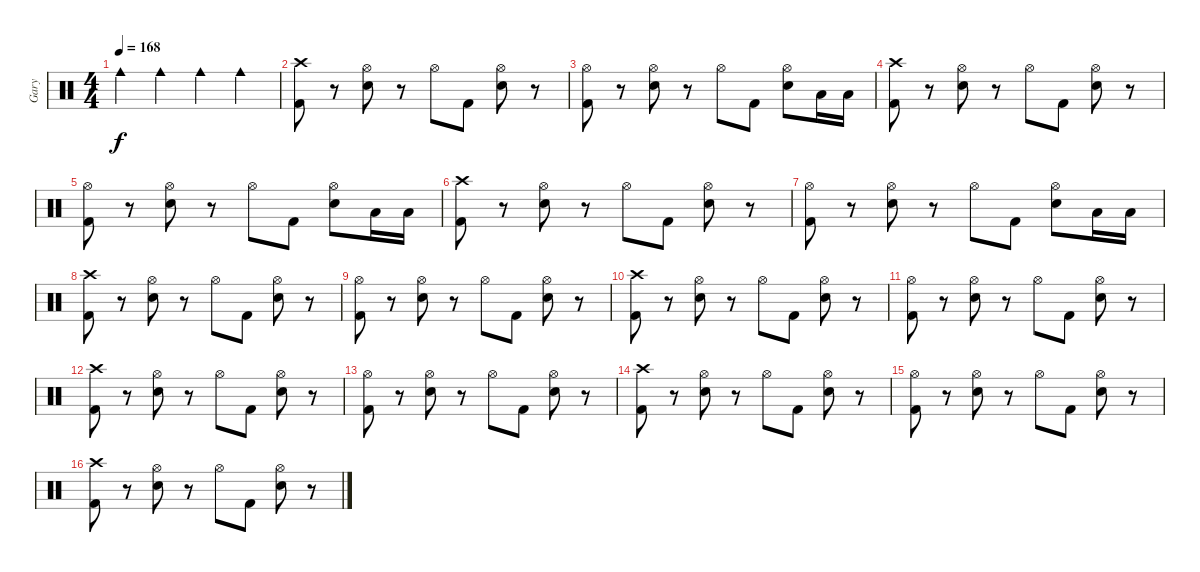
\track ("Gary" "Gary") {instrument percussion}
\staff {score}
\articulation defaults
\ts (4 4)
\tempo 168
\clef neutral
\ks c "Cowbell medium (hit)".4{dy f} "Cowbell medium (hit)".4 "Cowbell medium (hit)".4 "Cowbell medium (hit)".4
|
("Crash high (hit)" "Kick (hit) 2").8 r.8 ("Hi-Hat (open)" "Electric Snare (hit)").8 r.8 "Hi-Hat (open)".8 "Kick (hit) 2".8 ("Hi-Hat (open)" "Electric Snare (hit)").8 r.8 |
("Hi-Hat (open)" "Kick (hit) 2").8 r.8 ("Hi-Hat (open)" "Electric Snare (hit)").8 r.8 "Hi-Hat (open)".8 "Kick (hit) 2".8 ("Hi-Hat (open)" "Electric Snare (hit)").8 "Low Tom (hit)".16 "Low Tom (hit)".16 |
("Crash high (hit)" "Kick (hit) 2").8 r.8 ("Hi-Hat (open)" "Electric Snare (hit)").8 r.8 "Hi-Hat (open)".8 "Kick (hit) 2".8 ("Hi-Hat (open)" "Electric Snare (hit)").8 r.8 |
("Hi-Hat (open)" "Kick (hit) 2").8 r.8 ("Hi-Hat (open)" "Electric Snare (hit)").8 r.8 "Hi-Hat (open)".8 "Kick (hit) 2".8 ("Hi-Hat (open)" "Electric Snare (hit)").8 "Low Tom (hit)".16 "Low Tom (hit)".16 |
("Crash high (hit)" "Kick (hit) 2").8 r.8 ("Hi-Hat (open)" "Electric Snare (hit)").8 r.8 "Hi-Hat (open)".8 "Kick (hit) 2".8 ("Hi-Hat (open)" "Electric Snare (hit)").8 r.8 |
("Hi-Hat (open)" "Kick (hit) 2").8 r.8 ("Hi-Hat (open)" "Electric Snare (hit)").8 r.8 "Hi-Hat (open)".8 "Kick (hit) 2".8 ("Hi-Hat (open)" "Electric Snare (hit)").8 "Low Tom (hit)".16 "Low Tom (hit)".16 |
("Crash high (hit)" "Kick (hit) 2").8 r.8 ("Hi-Hat (open)" "Electric Snare (hit)").8 r.8 "Hi-Hat (open)".8 "Kick (hit) 2".8 ("Hi-Hat (open)" "Electric Snare (hit)").8 r.8 |
("Hi-Hat (open)" "Kick (hit) 2").8 r.8 ("Hi-Hat (open)" "Electric Snare (hit)").8 r.8 "Hi-Hat (open)".8 "Kick (hit) 2".8 ("Hi-Hat (open)" "Electric Snare (hit)").8 r.8 |
("Crash high (hit)" "Kick (hit) 2").8 r.8 ("Hi-Hat (open)" "Electric Snare (hit)").8 r.8 "Hi-Hat (open)".8 "Kick (hit) 2".8 ("Hi-Hat (open)" "Electric Snare (hit)").8 r.8 |
("Hi-Hat (open)" "Kick (hit) 2").8 r.8 ("Hi-Hat (open)" "Electric Snare (hit)").8 r.8 "Hi-Hat (open)".8 "Kick (hit) 2".8 ("Hi-Hat (open)" "Electric Snare (hit)").8 r.8 |
("Crash high (hit)" "Kick (hit) 2").8 r.8 ("Hi-Hat (open)" "Electric Snare (hit)").8 r.8 "Hi-Hat (open)".8 "Kick (hit) 2".8 ("Hi-Hat (open)" "Electric Snare (hit)").8 r.8 |
("Hi-Hat (open)" "Kick (hit) 2").8 r.8 ("Hi-Hat (open)" "Electric Snare (hit)").8 r.8 "Hi-Hat (open)".8 "Kick (hit) 2".8 ("Hi-Hat (open)" "Electric Snare (hit)").8 r.8 |
("Crash high (hit)" "Kick (hit) 2").8 r.8 ("Hi-Hat (open)" "Electric Snare (hit)").8 r.8 "Hi-Hat (open)".8 "Kick (hit) 2".8 ("Hi-Hat (open)" "Electric Snare (hit)").8 r.8 |
("Hi-Hat (open)" "Kick (hit) 2").8 r.8 ("Hi-Hat (open)" "Electric Snare (hit)").8 r.8 "Hi-Hat (open)".8 "Kick (hit) 2".8 ("Hi-Hat (open)" "Electric Snare (hit)").8 r.8 |
("Crash high (hit)" "Kick (hit) 2").8 r.8 ("Hi-Hat (open)" "Electric Snare (hit)").8 r.8 "Hi-Hat (open)".8 "Kick (hit) 2".8 ("Hi-Hat (open)" "Electric Snare (hit)").8 r.8
